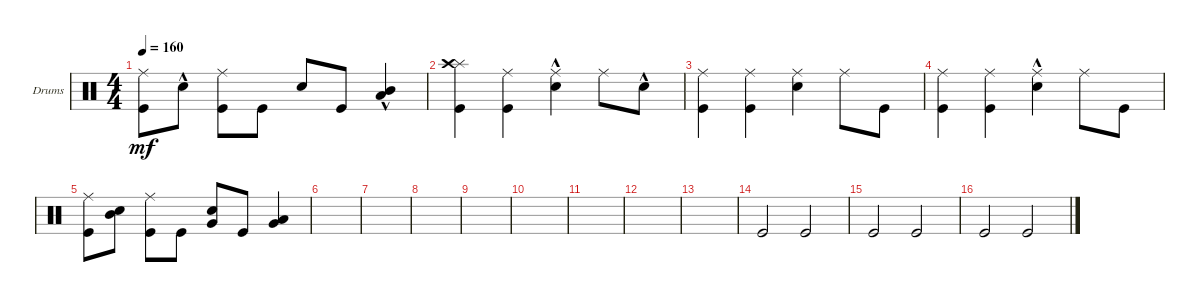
\defaultSystemsLayout 4
\bracketExtendMode groupsimilarinstruments
\firstSystemTrackNameOrientation horizontal
\otherSystemsTrackNameOrientation horizontal
\track ("Drumkit" "Drums") {instrument percussion}
\staff {score}
\articulation defaults
\ts (4 4)
\tempo 160
\clef neutral
\scale
0.333333
\ks c
("Kick (hit)" "Ride (middle)").8{dy mf} "Snare (hit) 2"{hac}.8 ("Kick (hit)" "Ride (middle)").8 "Kick (hit)".8 "Snare (hit) 2".8 "Kick (hit)".8 ("Low Tom (hit)"{hac} "Mid Tom (hit)"{hac}).4 |
\scale
0.333333 ("Kick (hit)" "Splash (hit)" "Crash high (hit)").4 ("Kick (hit)" "Ride (middle)").4 ("Snare (hit) 2"{hac} "Ride (middle)").4 "Ride (middle)".8 "Snare (hit) 2"{hac}.8 |
\scale
0.333333 ("Kick (hit)" "Ride (middle)").4 ("Kick (hit)" "Ride (middle)").4 ("Snare (hit) 2" "Ride (middle)").4 "Ride (middle)".8 "Kick (hit)".8 |
\scale
0.333333 ("Kick (hit)" "Ride (middle)").4 ("Kick (hit)" "Ride (middle)").4 ("Snare (hit) 2"{hac} "Ride (middle)").4 "Ride (middle)".8 "Kick (hit)".8 |
\scale
0.333333 ("Kick (hit)" "Ride (middle)").8 ("Mid Tom (hit)" "Snare (hit) 2").8 ("Kick (hit)" "Ride (middle)").8 "Kick (hit)".8 ("Very Low Tom (hit)" "Snare (hit) 2").8 "Kick (hit)".8 ("Very Low Tom (hit)" "Low Tom (hit)").4 |
\scale
0.333333 |
\scale
0.333333 |
\scale
0.333333 |
\scale
0.333333 |
\scale
0.333333 |
\scale
0.333333 |
\scale
0.333333 |
\scale
0.333333 |
\scale
0.333333 "Kick (hit)".2 "Kick (hit)".2 |
\scale
0.333333 "Kick (hit)".2 "Kick (hit)".2 |
\scale
0.333333 "Kick (hit)".2 "Kick (hit)".2
